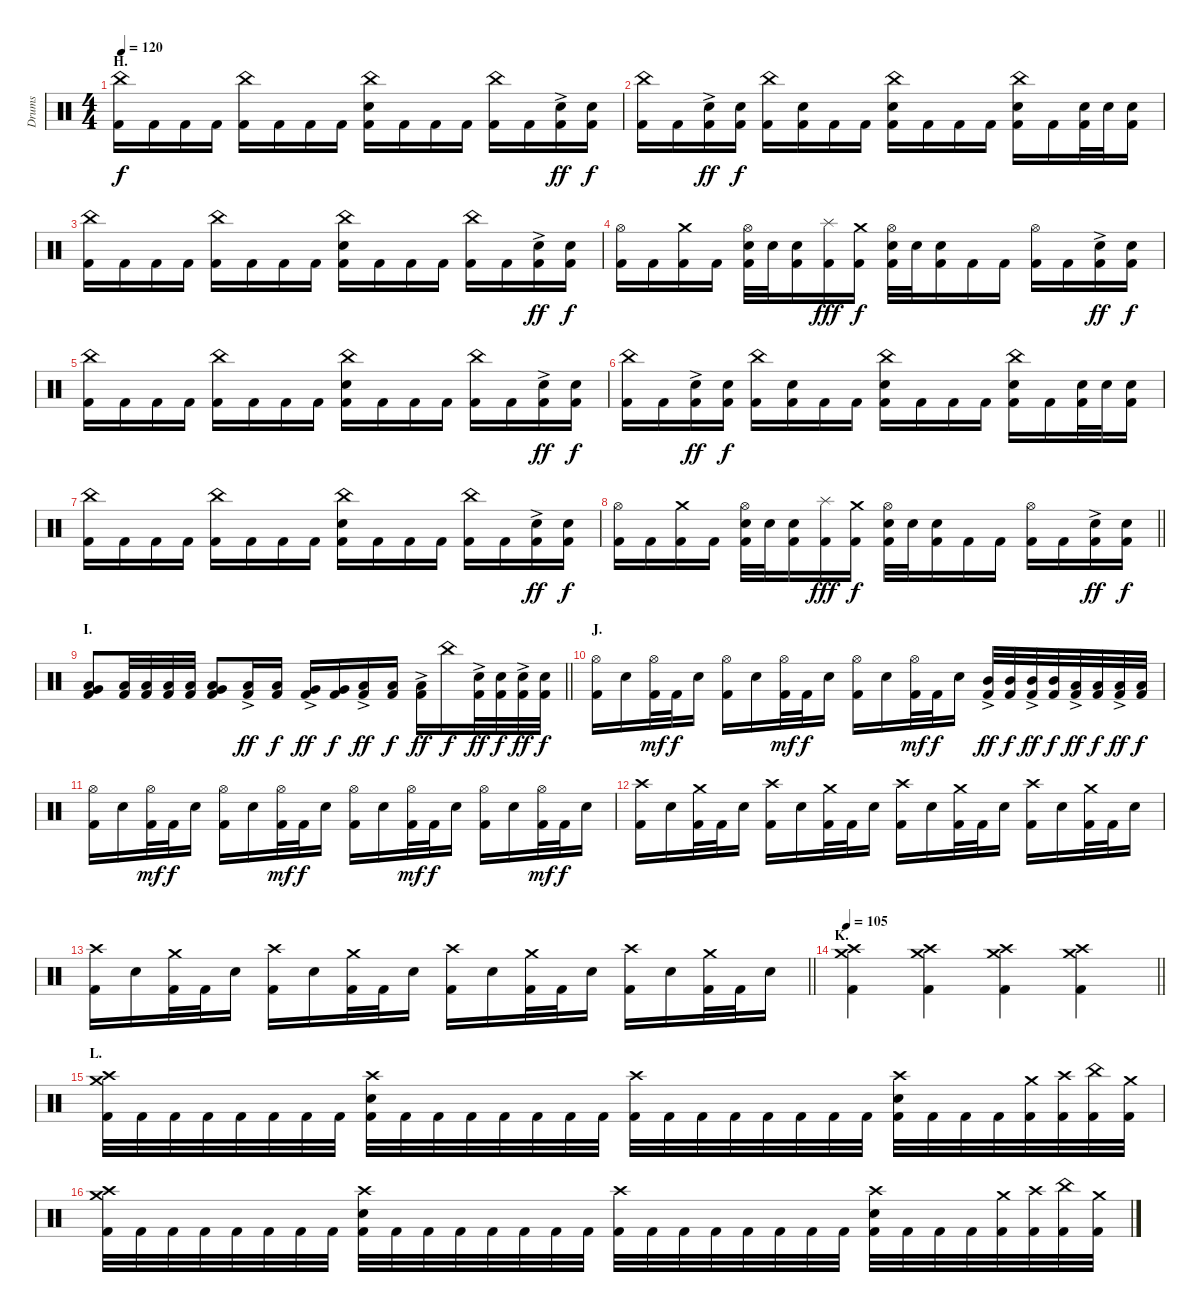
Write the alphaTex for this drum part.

\track ("Drums" "Drums") {instrument percussion}
\staff {score}
\articulation defaults
\ts (4 4)
\section ("" "H.")
\tempo 120
\clef neutral
\ks c
("China (hit)" "Kick (hit) 2").16{dy f} "Kick (hit) 2".16 "Kick (hit) 2".16 "Kick (hit) 2".16 ("China (hit)" "Kick (hit) 2").16 "Kick (hit) 2".16 "Kick (hit) 2".16 "Kick (hit) 2".16 ("China (hit)" "Electric Snare (hit)" "Kick (hit) 2").16 "Kick (hit) 2".16 "Kick (hit) 2".16 "Kick (hit) 2".16 ("China (hit)" "Kick (hit) 2").16 "Kick (hit) 2".16 ("Electric Snare (hit)"{ac} "Kick (hit) 2").16{dy ff} ("Electric Snare (hit)" "Kick (hit) 2").16{dy f} |
("China (hit)" "Kick (hit) 2").16 "Kick (hit) 2".16 ("Electric Snare (hit)"{ac} "Kick (hit) 2").16{dy ff} ("Electric Snare (hit)" "Kick (hit) 2").16{dy f} ("China (hit)" "Kick (hit) 2").16 ("Electric Snare (hit)" "Kick (hit) 2").16 "Kick (hit) 2".16 "Kick (hit) 2".16 ("China (hit)" "Electric Snare (hit)" "Kick (hit) 2").16 "Kick (hit) 2".16 "Kick (hit) 2".16 "Kick (hit) 2".16 ("China (hit)" "Electric Snare (hit)" "Kick (hit) 2").16 "Kick (hit) 2".16 ("Electric Snare (hit)" "Kick (hit) 2").32 "Electric Snare (hit)".32 ("Electric Snare (hit)" "Kick (hit) 2").16 |
("China (hit)" "Kick (hit) 2").16 "Kick (hit) 2".16 "Kick (hit) 2".16 "Kick (hit) 2".16 ("China (hit)" "Kick (hit) 2").16 "Kick (hit) 2".16 "Kick (hit) 2".16 "Kick (hit) 2".16 ("China (hit)" "Electric Snare (hit)" "Kick (hit) 2").16 "Kick (hit) 2".16 "Kick (hit) 2".16 "Kick (hit) 2".16 ("China (hit)" "Kick (hit) 2").16 "Kick (hit) 2".16 ("Electric Snare (hit)"{ac} "Kick (hit) 2").16{dy ff} ("Electric Snare (hit)" "Kick (hit) 2").16{dy f} |
("Hi-Hat (open)" "Kick (hit) 2").16 "Kick (hit) 2".16 ("Crash medium (hit)" "Kick (hit) 2").16 "Kick (hit) 2".16 ("Hi-Hat (open)" "Electric Snare (hit)" "Kick (hit) 2").32 "Electric Snare (hit)".32 ("Electric Snare (hit)" "Kick (hit) 2").16 ("Splash (hit)" "Kick (hit) 2").16{dy fff} ("Crash medium (hit)" "Kick (hit) 2").16{dy f} ("Hi-Hat (open)" "Electric Snare (hit)" "Kick (hit) 2").32 "Electric Snare (hit)".32 ("Electric Snare (hit)" "Kick (hit) 2").16 "Kick (hit) 2".16 "Kick (hit) 2".16 ("Hi-Hat (open)" "Kick (hit) 2").16 "Kick (hit) 2".16 ("Electric Snare (hit)"{ac} "Kick (hit) 2").16{dy ff} ("Electric Snare (hit)" "Kick (hit) 2").16{dy f} |
("China (hit)" "Kick (hit) 2").16 "Kick (hit) 2".16 "Kick (hit) 2".16 "Kick (hit) 2".16 ("China (hit)" "Kick (hit) 2").16 "Kick (hit) 2".16 "Kick (hit) 2".16 "Kick (hit) 2".16 ("China (hit)" "Electric Snare (hit)" "Kick (hit) 2").16 "Kick (hit) 2".16 "Kick (hit) 2".16 "Kick (hit) 2".16 ("China (hit)" "Kick (hit) 2").16 "Kick (hit) 2".16 ("Electric Snare (hit)"{ac} "Kick (hit) 2").16{dy ff} ("Electric Snare (hit)" "Kick (hit) 2").16{dy f} |
("China (hit)" "Kick (hit) 2").16 "Kick (hit) 2".16 ("Electric Snare (hit)"{ac} "Kick (hit) 2").16{dy ff} ("Electric Snare (hit)" "Kick (hit) 2").16{dy f} ("China (hit)" "Kick (hit) 2").16 ("Electric Snare (hit)" "Kick (hit) 2").16 "Kick (hit) 2".16 "Kick (hit) 2".16 ("China (hit)" "Electric Snare (hit)" "Kick (hit) 2").16 "Kick (hit) 2".16 "Kick (hit) 2".16 "Kick (hit) 2".16 ("China (hit)" "Electric Snare (hit)" "Kick (hit) 2").16 "Kick (hit) 2".16 ("Electric Snare (hit)" "Kick (hit) 2").32 "Electric Snare (hit)".32 ("Electric Snare (hit)" "Kick (hit) 2").16 |
("China (hit)" "Kick (hit) 2").16 "Kick (hit) 2".16 "Kick (hit) 2".16 "Kick (hit) 2".16 ("China (hit)" "Kick (hit) 2").16 "Kick (hit) 2".16 "Kick (hit) 2".16 "Kick (hit) 2".16 ("China (hit)" "Electric Snare (hit)" "Kick (hit) 2").16 "Kick (hit) 2".16 "Kick (hit) 2".16 "Kick (hit) 2".16 ("China (hit)" "Kick (hit) 2").16 "Kick (hit) 2".16 ("Electric Snare (hit)"{ac} "Kick (hit) 2").16{dy ff} ("Electric Snare (hit)" "Kick (hit) 2").16{dy f} |
\barLineRight lightlight
("Hi-Hat (open)" "Kick (hit) 2").16 "Kick (hit) 2".16 ("Crash medium (hit)" "Kick (hit) 2").16 "Kick (hit) 2".16 ("Hi-Hat (open)" "Electric Snare (hit)" "Kick (hit) 2").32 "Electric Snare (hit)".32 ("Electric Snare (hit)" "Kick (hit) 2").16 ("Splash (hit)" "Kick (hit) 2").16{dy fff} ("Crash medium (hit)" "Kick (hit) 2").16{dy f} ("Hi-Hat (open)" "Electric Snare (hit)" "Kick (hit) 2").32 "Electric Snare (hit)".32 ("Electric Snare (hit)" "Kick (hit) 2").16 "Kick (hit) 2".16 "Kick (hit) 2".16 ("Hi-Hat (open)" "Kick (hit) 2").16 "Kick (hit) 2".16 ("Electric Snare (hit)"{ac} "Kick (hit) 2").16{dy ff} ("Electric Snare (hit)" "Kick (hit) 2").16{dy f} |
\section ("" "I.")
\barLineRight lightlight
("Very Low Tom (hit)" "Low Floor Tom (hit)" "Kick (hit) 2").8 ("Low Tom (hit)" "Kick (hit) 2").32 ("Low Tom (hit)" "Kick (hit) 2").32 ("Low Tom (hit)" "Kick (hit) 2").32 ("Low Tom (hit)" "Kick (hit) 2").32 ("Very Low Tom (hit)" "Low Floor Tom (hit)" "Kick (hit) 2").8 ("Low Tom (hit)"{ac} "Kick (hit) 2").16{dy ff} ("Low Tom (hit)" "Kick (hit) 2").16{dy f} ("Very Low Tom (hit)"{ac} "Kick (hit) 2").16{dy ff} ("Very Low Tom (hit)" "Kick (hit) 2").16{dy f} ("Low Floor Tom (hit)"{ac} "Kick (hit) 2").16{dy ff} ("Low Floor Tom (hit)" "Kick (hit) 2").16{dy f} ("Low Floor Tom (hit)"{ac} "Kick (hit) 2").16{dy ff} "China (hit)".16{dy f} ("Electric Snare (hit)"{ac} "Kick (hit) 2").32{dy ff} ("Electric Snare (hit)" "Kick (hit) 2").32{dy f} ("Electric Snare (hit)"{ac} "Kick (hit) 2").32{dy ff} ("Electric Snare (hit)" "Kick (hit) 2").32{dy f} |
\section ("" "J.")
("Hi-Hat (open)" "Kick (hit) 2").16 "Electric Snare (hit)".16 ("Hi-Hat (open)" "Kick (hit) 2").32{dy mf} "Kick (hit) 2".32{dy f} "Electric Snare (hit)".16 ("Hi-Hat (open)" "Kick (hit) 2").16 "Electric Snare (hit)".16 ("Hi-Hat (open)" "Kick (hit) 2").32{dy mf} "Kick (hit) 2".32{dy f} "Electric Snare (hit)".16 ("Hi-Hat (open)" "Kick (hit) 2").16 "Electric Snare (hit)".16 ("Hi-Hat (open)" "Kick (hit) 2").32{dy mf} "Kick (hit) 2".32{dy f} "Electric Snare (hit)".16 ("Mid Tom (hit)"{ac} "Kick (hit) 2").32{dy ff} ("Mid Tom (hit)" "Kick (hit) 2").32{dy f} ("Mid Tom (hit)"{ac} "Kick (hit) 2").32{dy ff} ("Mid Tom (hit)" "Kick (hit) 2").32{dy f} ("Low Tom (hit)"{ac} "Kick (hit) 2").32{dy ff} ("Low Tom (hit)" "Kick (hit) 2").32{dy f} ("Low Tom (hit)"{ac} "Kick (hit) 2").32{dy ff} ("Low Tom (hit)" "Kick (hit) 2").32{dy f} |
("Hi-Hat (open)" "Kick (hit) 2").16 "Electric Snare (hit)".16 ("Hi-Hat (open)" "Kick (hit) 2").32{dy mf} "Kick (hit) 2".32{dy f} "Electric Snare (hit)".16 ("Hi-Hat (open)" "Kick (hit) 2").16 "Electric Snare (hit)".16 ("Hi-Hat (open)" "Kick (hit) 2").32{dy mf} "Kick (hit) 2".32{dy f} "Electric Snare (hit)".16 ("Hi-Hat (open)" "Kick (hit) 2").16 "Electric Snare (hit)".16 ("Hi-Hat (open)" "Kick (hit) 2").32{dy mf} "Kick (hit) 2".32{dy f} "Electric Snare (hit)".16 ("Hi-Hat (open)" "Kick (hit) 2").16 "Electric Snare (hit)".16 ("Hi-Hat (open)" "Kick (hit) 2").32{dy mf} "Kick (hit) 2".32{dy f} "Electric Snare (hit)".16 |
("Crash high (hit)" "Kick (hit) 2").16 "Electric Snare (hit)".16 ("Crash medium (hit)" "Kick (hit) 2").32 "Kick (hit) 2".32 "Electric Snare (hit)".16 ("Crash high (hit)" "Kick (hit) 2").16 "Electric Snare (hit)".16 ("Crash medium (hit)" "Kick (hit) 2").32 "Kick (hit) 2".32 "Electric Snare (hit)".16 ("Crash high (hit)" "Kick (hit) 2").16 "Electric Snare (hit)".16 ("Crash medium (hit)" "Kick (hit) 2").32 "Kick (hit) 2".32 "Electric Snare (hit)".16 ("Crash high (hit)" "Kick (hit) 2").16 "Electric Snare (hit)".16 ("Crash medium (hit)" "Kick (hit) 2").32 "Kick (hit) 2".32 "Electric Snare (hit)".16 |
\barLineRight lightlight
("Crash high (hit)" "Kick (hit) 2").16 "Electric Snare (hit)".16 ("Crash medium (hit)" "Kick (hit) 2").32 "Kick (hit) 2".32 "Electric Snare (hit)".16 ("Crash high (hit)" "Kick (hit) 2").16 "Electric Snare (hit)".16 ("Crash medium (hit)" "Kick (hit) 2").32 "Kick (hit) 2".32 "Electric Snare (hit)".16 ("Crash high (hit)" "Kick (hit) 2").16 "Electric Snare (hit)".16 ("Crash medium (hit)" "Kick (hit) 2").32 "Kick (hit) 2".32 "Electric Snare (hit)".16 ("Crash high (hit)" "Kick (hit) 2").16 "Electric Snare (hit)".16 ("Crash medium (hit)" "Kick (hit) 2").32 "Kick (hit) 2".32 "Electric Snare (hit)".16 |
\section ("" "K.")
\tempo 105
\barLineRight lightlight
("Crash medium (hit)" "Crash high (hit)" "Kick (hit) 2").4 ("Crash medium (hit)" "Crash high (hit)" "Kick (hit) 2").4 ("Crash medium (hit)" "Crash high (hit)" "Kick (hit) 2").4 ("Crash medium (hit)" "Crash high (hit)" "Kick (hit) 2").4 |
\section ("" "L.")
("Crash medium (hit)" "Crash high (hit)" "Kick (hit) 2").32 "Kick (hit) 2".32 "Kick (hit) 2".32 "Kick (hit) 2".32 "Kick (hit) 2".32 "Kick (hit) 2".32 "Kick (hit) 2".32 "Kick (hit) 2".32 ("Crash high (hit)" "Electric Snare (hit)" "Kick (hit) 2").32 "Kick (hit) 2".32 "Kick (hit) 2".32 "Kick (hit) 2".32 "Kick (hit) 2".32 "Kick (hit) 2".32 "Kick (hit) 2".32 "Kick (hit) 2".32 ("Crash high (hit)" "Kick (hit) 2").32 "Kick (hit) 2".32 "Kick (hit) 2".32 "Kick (hit) 2".32 "Kick (hit) 2".32 "Kick (hit) 2".32 "Kick (hit) 2".32 "Kick (hit) 2".32 ("Crash high (hit)" "Electric Snare (hit)" "Kick (hit) 2").32 "Kick (hit) 2".32 "Kick (hit) 2".32 "Kick (hit) 2".32 ("Crash medium (hit)" "Kick (hit) 2").32 ("Crash high (hit)" "Kick (hit) 2").32 ("China (hit)" "Kick (hit) 2").32 ("Crash medium (hit)" "Kick (hit) 2").32 |
("Crash medium (hit)" "Crash high (hit)" "Kick (hit) 2").32 "Kick (hit) 2".32 "Kick (hit) 2".32 "Kick (hit) 2".32 "Kick (hit) 2".32 "Kick (hit) 2".32 "Kick (hit) 2".32 "Kick (hit) 2".32 ("Crash high (hit)" "Electric Snare (hit)" "Kick (hit) 2").32 "Kick (hit) 2".32 "Kick (hit) 2".32 "Kick (hit) 2".32 "Kick (hit) 2".32 "Kick (hit) 2".32 "Kick (hit) 2".32 "Kick (hit) 2".32 ("Crash high (hit)" "Kick (hit) 2").32 "Kick (hit) 2".32 "Kick (hit) 2".32 "Kick (hit) 2".32 "Kick (hit) 2".32 "Kick (hit) 2".32 "Kick (hit) 2".32 "Kick (hit) 2".32 ("Crash high (hit)" "Electric Snare (hit)" "Kick (hit) 2").32 "Kick (hit) 2".32 "Kick (hit) 2".32 "Kick (hit) 2".32 ("Crash medium (hit)" "Kick (hit) 2").32 ("Crash high (hit)" "Kick (hit) 2").32 ("China (hit)" "Kick (hit) 2").32 ("Crash medium (hit)" "Kick (hit) 2").32
